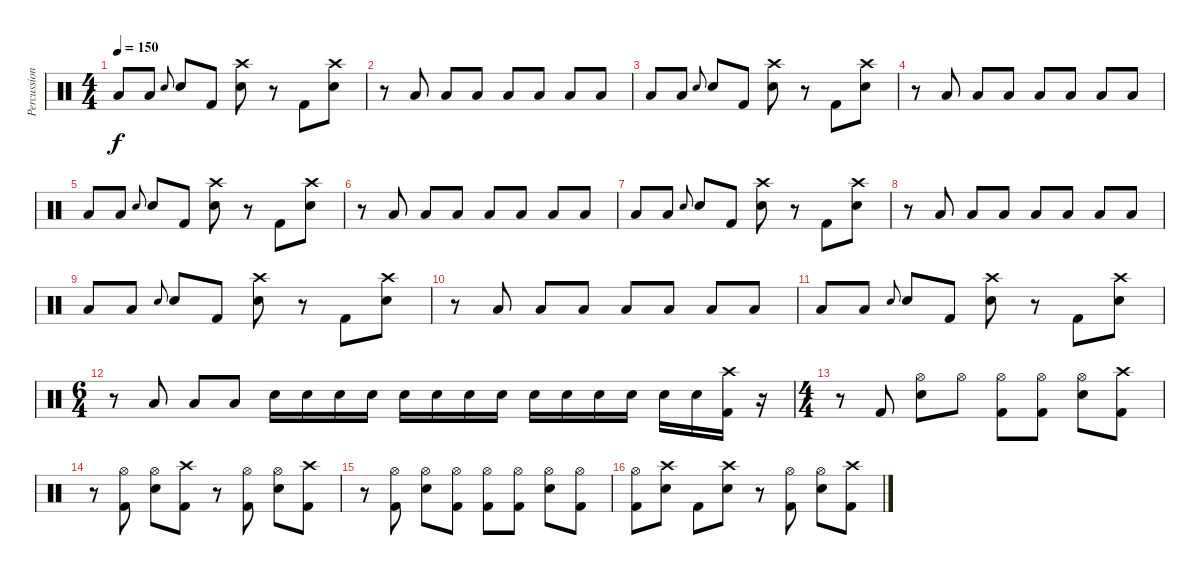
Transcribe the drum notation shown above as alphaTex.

\track ("Percussion" "Percussion") {instrument percussion}
\staff {score}
\articulation defaults
\ts (4 4)
\tempo 150
\clef neutral
\ks c "Low Floor Tom (hit)".8{dy f} "Low Floor Tom (hit)".8 "Electric Snare (hit)".8{gr onbeat} "Electric Snare (hit)".8 "Kick (hit) 2".8
("Crash high (hit)" "Electric Snare (hit)").8 r.8 "Kick (hit) 2".8 ("Crash high (hit)" "Electric Snare (hit)").8 |
r.8 "Low Floor Tom (hit)".8 "Low Floor Tom (hit)".8 "Low Floor Tom (hit)".8 "Low Floor Tom (hit)".8 "Low Floor Tom (hit)".8 "Low Floor Tom (hit)".8 "Low Floor Tom (hit)".8 |
"Low Floor Tom (hit)".8 "Low Floor Tom (hit)".8 "Electric Snare (hit)".8{gr onbeat} "Electric Snare (hit)".8 "Kick (hit) 2".8 ("Crash high (hit)" "Electric Snare (hit)").8 r.8 "Kick (hit) 2".8 ("Crash high (hit)" "Electric Snare (hit)").8 |
r.8 "Low Floor Tom (hit)".8 "Low Floor Tom (hit)".8 "Low Floor Tom (hit)".8 "Low Floor Tom (hit)".8 "Low Floor Tom (hit)".8 "Low Floor Tom (hit)".8 "Low Floor Tom (hit)".8 |
"Low Floor Tom (hit)".8 "Low Floor Tom (hit)".8 "Electric Snare (hit)".8{gr onbeat} "Electric Snare (hit)".8 "Kick (hit) 2".8 ("Crash high (hit)" "Electric Snare (hit)").8 r.8 "Kick (hit) 2".8 ("Crash high (hit)" "Electric Snare (hit)").8 |
r.8 "Low Floor Tom (hit)".8 "Low Floor Tom (hit)".8 "Low Floor Tom (hit)".8 "Low Floor Tom (hit)".8 "Low Floor Tom (hit)".8 "Low Floor Tom (hit)".8 "Low Floor Tom (hit)".8 |
"Low Floor Tom (hit)".8 "Low Floor Tom (hit)".8 "Electric Snare (hit)".8{gr onbeat} "Electric Snare (hit)".8 "Kick (hit) 2".8 ("Crash high (hit)" "Electric Snare (hit)").8 r.8 "Kick (hit) 2".8 ("Crash high (hit)" "Electric Snare (hit)").8 |
r.8 "Low Floor Tom (hit)".8 "Low Floor Tom (hit)".8 "Low Floor Tom (hit)".8 "Low Floor Tom (hit)".8 "Low Floor Tom (hit)".8 "Low Floor Tom (hit)".8 "Low Floor Tom (hit)".8 |
"Low Floor Tom (hit)".8 "Low Floor Tom (hit)".8 "Electric Snare (hit)".8{gr onbeat} "Electric Snare (hit)".8 "Kick (hit) 2".8 ("Crash high (hit)" "Electric Snare (hit)").8 r.8 "Kick (hit) 2".8 ("Crash high (hit)" "Electric Snare (hit)").8 |
r.8 "Low Floor Tom (hit)".8 "Low Floor Tom (hit)".8 "Low Floor Tom (hit)".8 "Low Floor Tom (hit)".8 "Low Floor Tom (hit)".8 "Low Floor Tom (hit)".8 "Low Floor Tom (hit)".8 |
"Low Floor Tom (hit)".8 "Low Floor Tom (hit)".8 "Electric Snare (hit)".8{gr onbeat} "Electric Snare (hit)".8 "Kick (hit) 2".8 ("Crash high (hit)" "Electric Snare (hit)").8 r.8 "Kick (hit) 2".8 ("Crash high (hit)" "Electric Snare (hit)").8 |
\ts (6 4)
r.8 "Low Floor Tom (hit)".8 "Low Floor Tom (hit)".8 "Low Floor Tom (hit)".8 "Electric Snare (hit)".16 "Electric Snare (hit)".16 "Electric Snare (hit)".16 "Electric Snare (hit)".16 "Electric Snare (hit)".16 "Electric Snare (hit)".16 "Electric Snare (hit)".16 "Electric Snare (hit)".16 "Electric Snare (hit)".16 "Electric Snare (hit)".16 "Electric Snare (hit)".16 "Electric Snare (hit)".16 "Electric Snare (hit)".16 "Electric Snare (hit)".16 ("Crash high (hit)" "Kick (hit) 2").16 r.16 |
\ts (4 4)
r.8 "Kick (hit) 2".8 ("Hi-Hat (open)" "Electric Snare (hit)").8 "Hi-Hat (open)".8 ("Hi-Hat (open)" "Kick (hit) 2").8 ("Hi-Hat (open)" "Kick (hit) 2").8 ("Hi-Hat (open)" "Electric Snare (hit)").8 ("Crash high (hit)" "Kick (hit) 2").8 |
r.8 ("Hi-Hat (open)" "Kick (hit) 2").8 ("Hi-Hat (open)" "Electric Snare (hit)").8 ("Crash high (hit)" "Kick (hit) 2").8 r.8 ("Hi-Hat (open)" "Kick (hit) 2").8 ("Hi-Hat (open)" "Electric Snare (hit)").8 ("Crash high (hit)" "Kick (hit) 2").8 |
r.8 ("Hi-Hat (open)" "Kick (hit) 2").8 ("Hi-Hat (open)" "Electric Snare (hit)").8 ("Hi-Hat (open)" "Kick (hit) 2").8 ("Hi-Hat (open)" "Kick (hit) 2").8 ("Hi-Hat (open)" "Kick (hit) 2").8 ("Hi-Hat (open)" "Electric Snare (hit)").8 ("Hi-Hat (open)" "Kick (hit) 2").8 |
("Hi-Hat (open)" "Kick (hit) 2").8 ("Crash high (hit)" "Electric Snare (hit)").8 "Kick (hit) 2".8 ("Crash high (hit)" "Electric Snare (hit)").8 r.8 ("Hi-Hat (open)" "Kick (hit) 2").8 ("Hi-Hat (open)" "Electric Snare (hit)").8 ("Crash high (hit)" "Kick (hit) 2").8
